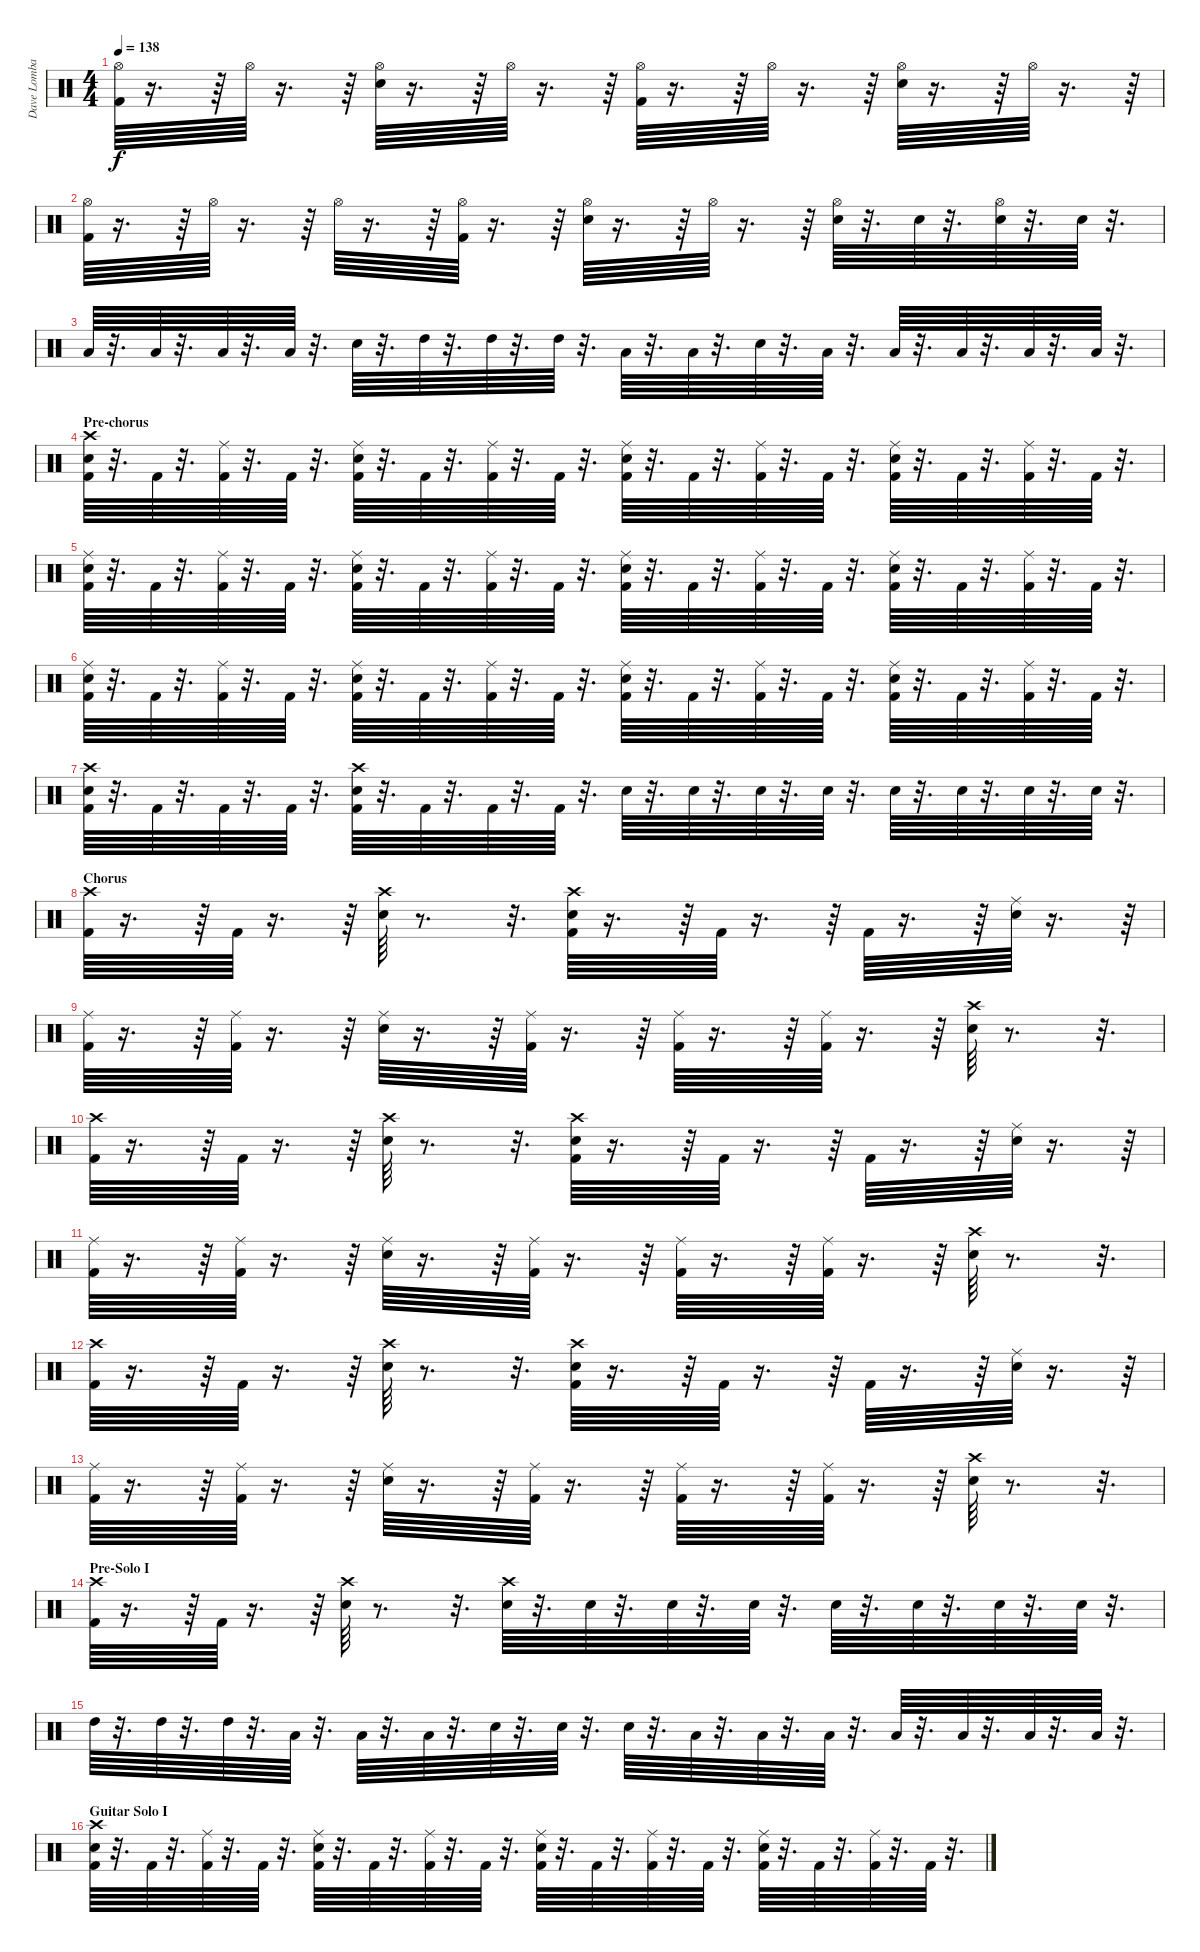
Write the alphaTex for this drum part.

\track ("Dave Lombardo" "Dave Lomba") {instrument percussion}
\staff {score}
\articulation defaults
\ts (4 4)
\tempo 138
\clef neutral
\ks c
("Kick (hit) 2" "Hi-Hat (open)").64{dy f} r.16{d} r.64 "Hi-Hat (open)".64 r.16{d} r.64 ("Snare (hit) 2" "Hi-Hat (open)").64 r.16{d} r.64 "Hi-Hat (open)".64 r.16{d} r.64 ("Kick (hit) 2" "Hi-Hat (open)").64 r.16{d} r.64 "Hi-Hat (open)".64 r.16{d} r.64 ("Snare (hit) 2" "Hi-Hat (open)").64 r.16{d} r.64 "Hi-Hat (open)".64 r.16{d} r.64 |
("Hi-Hat (open)" "Kick (hit) 2").64 r.16{d} r.64 "Hi-Hat (open)".64 r.16{d} r.64 "Hi-Hat (open)".64 r.16{d} r.64 ("Hi-Hat (open)" "Kick (hit) 2").64 r.16{d} r.64 ("Hi-Hat (open)" "Snare (hit) 2").64 r.16{d} r.64 "Hi-Hat (open)".64 r.16{d} r.64 ("Hi-Hat (open)" "Snare (hit) 2").64 r.32{d} "Snare (hit) 2".64 r.32{d} ("Hi-Hat (open)" "Snare (hit) 2").64 r.32{d} "Snare (hit) 2".64 r.32{d} |
"Low Tom (hit)".64 r.32{d} "Low Tom (hit)".64 r.32{d} "Low Tom (hit)".64 r.32{d} "Low Tom (hit)".64 r.32{d} "Snare (hit) 2".64 r.32{d} "High Tom (hit)".64 r.32{d} "High Tom (hit)".64 r.32{d} "High Tom (hit)".64 r.32{d} "Low Tom (hit)".64 r.32{d} "Low Tom (hit)".64 r.32{d} "Snare (hit) 2".64 r.32{d} "Low Tom (hit)".64 r.32{d} "Low Floor Tom (hit)".64 r.32{d} "Low Floor Tom (hit)".64 r.32{d} "Low Floor Tom (hit)".64 r.32{d} "Low Floor Tom (hit)".64 r.32{d} |
\section ("" "Pre-chorus")
("Kick (hit) 2" "Snare (hit) 2" "Crash high (hit)").64 r.32{d} "Kick (hit) 2".64 r.32{d} ("Kick (hit) 2" "Ride (middle)").64 r.32{d} "Kick (hit) 2".64 r.32{d} ("Kick (hit) 2" "Snare (hit) 2" "Ride (middle)").64 r.32{d} "Kick (hit) 2".64 r.32{d} ("Kick (hit) 2" "Ride (middle)").64 r.32{d} "Kick (hit) 2".64 r.32{d} ("Kick (hit) 2" "Snare (hit) 2" "Ride (middle)").64 r.32{d} "Kick (hit) 2".64 r.32{d} ("Kick (hit) 2" "Ride (middle)").64 r.32{d} "Kick (hit) 2".64 r.32{d} ("Kick (hit) 2" "Snare (hit) 2" "Ride (middle)").64 r.32{d} "Kick (hit) 2".64 r.32{d} ("Kick (hit) 2" "Ride (middle)").64 r.32{d} "Kick (hit) 2".64 r.32{d} |
("Kick (hit) 2" "Snare (hit) 2" "Ride (middle)").64 r.32{d} "Kick (hit) 2".64 r.32{d} ("Kick (hit) 2" "Ride (middle)").64 r.32{d} "Kick (hit) 2".64 r.32{d} ("Kick (hit) 2" "Snare (hit) 2" "Ride (middle)").64 r.32{d} "Kick (hit) 2".64 r.32{d} ("Kick (hit) 2" "Ride (middle)").64 r.32{d} "Kick (hit) 2".64 r.32{d} ("Kick (hit) 2" "Snare (hit) 2" "Ride (middle)").64 r.32{d} "Kick (hit) 2".64 r.32{d} ("Kick (hit) 2" "Ride (middle)").64 r.32{d} "Kick (hit) 2".64 r.32{d} ("Kick (hit) 2" "Snare (hit) 2" "Ride (middle)").64 r.32{d} "Kick (hit) 2".64 r.32{d} ("Kick (hit) 2" "Ride (middle)").64 r.32{d} "Kick (hit) 2".64 r.32{d} |
("Kick (hit) 2" "Snare (hit) 2" "Ride (middle)").64 r.32{d} "Kick (hit) 2".64 r.32{d} ("Kick (hit) 2" "Ride (middle)").64 r.32{d} "Kick (hit) 2".64 r.32{d} ("Kick (hit) 2" "Snare (hit) 2" "Ride (middle)").64 r.32{d} "Kick (hit) 2".64 r.32{d} ("Kick (hit) 2" "Ride (middle)").64 r.32{d} "Kick (hit) 2".64 r.32{d} ("Kick (hit) 2" "Snare (hit) 2" "Ride (middle)").64 r.32{d} "Kick (hit) 2".64 r.32{d} ("Kick (hit) 2" "Ride (middle)").64 r.32{d} "Kick (hit) 2".64 r.32{d} ("Kick (hit) 2" "Snare (hit) 2" "Ride (middle)").64 r.32{d} "Kick (hit) 2".64 r.32{d} ("Kick (hit) 2" "Ride (middle)").64 r.32{d} "Kick (hit) 2".64 r.32{d} |
("Crash high (hit)" "Kick (hit) 2" "Snare (hit) 2").64 r.32{d} "Kick (hit) 2".64 r.32{d} "Kick (hit) 2".64 r.32{d} "Kick (hit) 2".64 r.32{d} ("Kick (hit) 2" "Crash high (hit)" "Snare (hit) 2").64 r.32{d} "Kick (hit) 2".64 r.32{d} "Kick (hit) 2".64 r.32{d} "Kick (hit) 2".64 r.32{d} "Snare (hit) 2".64 r.32{d} "Snare (hit) 2".64 r.32{d} "Snare (hit) 2".64 r.32{d} "Snare (hit) 2".64 r.32{d} "Snare (hit) 2".64 r.32{d} "Snare (hit) 2".64 r.32{d} "Snare (hit) 2".64 r.32{d} "Snare (hit) 2".64 r.32{d} |
\section ("" "Chorus")
("Kick (hit) 2" "Crash high (hit)").64 r.16{d} r.64 "Kick (hit) 2".64 r.16{d} r.64 ("Snare (hit) 2" "Crash high (hit)").64 r.8{d} r.32{d} ("Crash high (hit)" "Snare (hit) 2" "Kick (hit) 2").64 r.16{d} r.64 "Kick (hit) 2".64 r.16{d} r.64 "Kick (hit) 2".64 r.16{d} r.64 ("Ride (middle)" "Snare (hit) 2").64 r.16{d} r.64 |
("Ride (middle)" "Kick (hit) 2").64 r.16{d} r.64 ("Ride (middle)" "Kick (hit) 2").64 r.16{d} r.64 ("Ride (middle)" "Snare (hit) 2").64 r.16{d} r.64 ("Ride (middle)" "Kick (hit) 2").64 r.16{d} r.64 ("Ride (middle)" "Kick (hit) 2").64 r.16{d} r.64 ("Ride (middle)" "Kick (hit) 2").64 r.16{d} r.64 ("Snare (hit) 2" "Crash high (hit)").64 r.8{d} r.32{d} |
("Kick (hit) 2" "Crash high (hit)").64 r.16{d} r.64 "Kick (hit) 2".64 r.16{d} r.64 ("Snare (hit) 2" "Crash high (hit)").64 r.8{d} r.32{d} ("Crash high (hit)" "Snare (hit) 2" "Kick (hit) 2").64 r.16{d} r.64 "Kick (hit) 2".64 r.16{d} r.64 "Kick (hit) 2".64 r.16{d} r.64 ("Snare (hit) 2" "Ride (middle)").64 r.16{d} r.64 |
("Ride (middle)" "Kick (hit) 2").64 r.16{d} r.64 ("Ride (middle)" "Kick (hit) 2").64 r.16{d} r.64 ("Ride (middle)" "Snare (hit) 2").64 r.16{d} r.64 ("Ride (middle)" "Kick (hit) 2").64 r.16{d} r.64 ("Ride (middle)" "Kick (hit) 2").64 r.16{d} r.64 ("Ride (middle)" "Kick (hit) 2").64 r.16{d} r.64 ("Snare (hit) 2" "Crash high (hit)").64 r.8{d} r.32{d} |
("Kick (hit) 2" "Crash high (hit)").64 r.16{d} r.64 "Kick (hit) 2".64 r.16{d} r.64 ("Snare (hit) 2" "Crash high (hit)").64 r.8{d} r.32{d} ("Crash high (hit)" "Snare (hit) 2" "Kick (hit) 2").64 r.16{d} r.64 "Kick (hit) 2".64 r.16{d} r.64 "Kick (hit) 2".64 r.16{d} r.64 ("Ride (middle)" "Snare (hit) 2").64 r.16{d} r.64 |
("Ride (middle)" "Kick (hit) 2").64 r.16{d} r.64 ("Ride (middle)" "Kick (hit) 2").64 r.16{d} r.64 ("Ride (middle)" "Snare (hit) 2").64 r.16{d} r.64 ("Ride (middle)" "Kick (hit) 2").64 r.16{d} r.64 ("Ride (middle)" "Kick (hit) 2").64 r.16{d} r.64 ("Ride (middle)" "Kick (hit) 2").64 r.16{d} r.64 ("Snare (hit) 2" "Crash high (hit)").64 r.8{d} r.32{d} |
\section ("" "Pre-Solo I")
("Kick (hit) 2" "Crash high (hit)").64 r.16{d} r.64 "Kick (hit) 2".64 r.16{d} r.64 ("Snare (hit) 2" "Crash high (hit)").64 r.8{d} r.32{d} ("Crash high (hit)" "Snare (hit) 2").64 r.32{d} "Snare (hit) 2".64 r.32{d} "Snare (hit) 2".64 r.32{d} "Snare (hit) 2".64 r.32{d} "Snare (hit) 2".64 r.32{d} "Snare (hit) 2".64 r.32{d} "Snare (hit) 2".64 r.32{d} "Snare (hit) 2".64 r.32{d} |
"High Tom (hit)".64 r.32{d} "High Tom (hit)".64 r.32{d} "High Tom (hit)".64 r.32{d} "Low Tom (hit)".64 r.32{d} "Low Tom (hit)".64 r.32{d} "Low Tom (hit)".64 r.32{d} "Snare (hit) 2".64 r.32{d} "Snare (hit) 2".64 r.32{d} "Snare (hit) 2".64 r.32{d} "Low Tom (hit)".64 r.32{d} "Low Tom (hit)".64 r.32{d} "Low Tom (hit)".64 r.32{d} "Low Tom (hit)".64 r.32{d} "Low Floor Tom (hit)".64 r.32{d} "Low Floor Tom (hit)".64 r.32{d} "Low Floor Tom (hit)".64 r.32{d} |
\section ("" "Guitar Solo I")
("Kick (hit) 2" "Snare (hit) 2" "Crash high (hit)").64 r.32{d} "Kick (hit) 2".64 r.32{d} ("Kick (hit) 2" "Ride (middle)").64 r.32{d} "Kick (hit) 2".64 r.32{d} ("Kick (hit) 2" "Snare (hit) 2" "Ride (middle)").64 r.32{d} "Kick (hit) 2".64 r.32{d} ("Kick (hit) 2" "Ride (middle)").64 r.32{d} "Kick (hit) 2".64 r.32{d} ("Kick (hit) 2" "Snare (hit) 2" "Ride (middle)").64 r.32{d} "Kick (hit) 2".64 r.32{d} ("Kick (hit) 2" "Ride (middle)").64 r.32{d} "Kick (hit) 2".64 r.32{d} ("Kick (hit) 2" "Snare (hit) 2" "Ride (middle)").64 r.32{d} "Kick (hit) 2".64 r.32{d} ("Kick (hit) 2" "Ride (middle)").64 r.32{d} "Kick (hit) 2".64 r.32{d}
